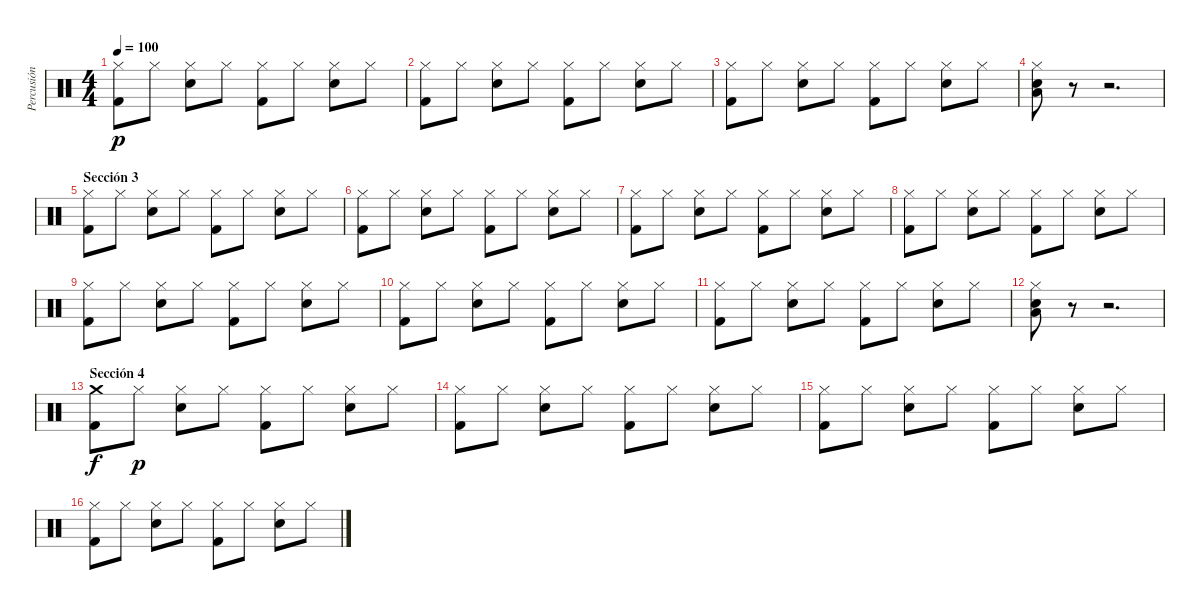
\track ("Percusión" "Percusión") {instrument percussion}
\staff {score}
\articulation defaults
\ts (4 4)
\tempo 100
\clef neutral
\ks c
("Hi-Hat (closed)" "Kick (hit) 2").8{dy p} "Hi-Hat (closed)".8 ("Hi-Hat (closed)" "Snare (hit) 2").8 "Hi-Hat (closed)".8 ("Hi-Hat (closed)" "Kick (hit) 2").8 "Hi-Hat (closed)".8 ("Hi-Hat (closed)" "Snare (hit) 2").8 "Hi-Hat (closed)".8 |
("Hi-Hat (closed)" "Kick (hit) 2").8 "Hi-Hat (closed)".8 ("Hi-Hat (closed)" "Snare (hit) 2").8 "Hi-Hat (closed)".8 ("Hi-Hat (closed)" "Kick (hit) 2").8 "Hi-Hat (closed)".8 ("Hi-Hat (closed)" "Snare (hit) 2").8 "Hi-Hat (closed)".8 |
("Hi-Hat (closed)" "Kick (hit) 2").8 "Hi-Hat (closed)".8 ("Hi-Hat (closed)" "Snare (hit) 2").8 "Hi-Hat (closed)".8 ("Hi-Hat (closed)" "Kick (hit) 2").8 "Hi-Hat (closed)".8 ("Hi-Hat (closed)" "Snare (hit) 2").8 "Hi-Hat (closed)".8 |
("Hi-Hat (closed)" "Snare (hit) 2" "Low Tom (hit)").8 r.8 r.2{d} |
\section ("" "Sección 3")
("Hi-Hat (closed)" "Kick (hit) 2").8 "Hi-Hat (closed)".8 ("Hi-Hat (closed)" "Snare (hit) 2").8 "Hi-Hat (closed)".8 ("Hi-Hat (closed)" "Kick (hit) 2").8 "Hi-Hat (closed)".8 ("Hi-Hat (closed)" "Snare (hit) 2").8 "Hi-Hat (closed)".8 |
("Hi-Hat (closed)" "Kick (hit) 2").8 "Hi-Hat (closed)".8 ("Hi-Hat (closed)" "Snare (hit) 2").8 "Hi-Hat (closed)".8 ("Hi-Hat (closed)" "Kick (hit) 2").8 "Hi-Hat (closed)".8 ("Hi-Hat (closed)" "Snare (hit) 2").8 "Hi-Hat (closed)".8 |
("Hi-Hat (closed)" "Kick (hit) 2").8 "Hi-Hat (closed)".8 ("Hi-Hat (closed)" "Snare (hit) 2").8 "Hi-Hat (closed)".8 ("Hi-Hat (closed)" "Kick (hit) 2").8 "Hi-Hat (closed)".8 ("Hi-Hat (closed)" "Snare (hit) 2").8 "Hi-Hat (closed)".8 |
("Hi-Hat (closed)" "Kick (hit) 2").8 "Hi-Hat (closed)".8 ("Hi-Hat (closed)" "Snare (hit) 2").8 "Hi-Hat (closed)".8 ("Hi-Hat (closed)" "Kick (hit) 2").8 "Hi-Hat (closed)".8 ("Hi-Hat (closed)" "Snare (hit) 2").8 "Hi-Hat (closed)".8 |
("Hi-Hat (closed)" "Kick (hit) 2").8 "Hi-Hat (closed)".8 ("Hi-Hat (closed)" "Snare (hit) 2").8 "Hi-Hat (closed)".8 ("Hi-Hat (closed)" "Kick (hit) 2").8 "Hi-Hat (closed)".8 ("Hi-Hat (closed)" "Snare (hit) 2").8 "Hi-Hat (closed)".8 |
("Hi-Hat (closed)" "Kick (hit) 2").8 "Hi-Hat (closed)".8 ("Hi-Hat (closed)" "Snare (hit) 2").8 "Hi-Hat (closed)".8 ("Hi-Hat (closed)" "Kick (hit) 2").8 "Hi-Hat (closed)".8 ("Hi-Hat (closed)" "Snare (hit) 2").8 "Hi-Hat (closed)".8 |
("Hi-Hat (closed)" "Kick (hit) 2").8 "Hi-Hat (closed)".8 ("Hi-Hat (closed)" "Snare (hit) 2").8 "Hi-Hat (closed)".8 ("Hi-Hat (closed)" "Kick (hit) 2").8 "Hi-Hat (closed)".8 ("Hi-Hat (closed)" "Snare (hit) 2").8 "Hi-Hat (closed)".8 |
("Hi-Hat (closed)" "Snare (hit) 2" "Low Tom (hit)").8 r.8 r.2{d} |
\section ("" "Sección 4")
("Crash medium (hit)" "Kick (hit) 2").8{dy f} "Hi-Hat (closed)".8{dy p} ("Hi-Hat (closed)" "Snare (hit) 2").8 "Hi-Hat (closed)".8 ("Hi-Hat (closed)" "Kick (hit) 2").8 "Hi-Hat (closed)".8 ("Hi-Hat (closed)" "Snare (hit) 2").8 "Hi-Hat (closed)".8 |
("Hi-Hat (closed)" "Kick (hit) 2").8 "Hi-Hat (closed)".8 ("Hi-Hat (closed)" "Snare (hit) 2").8 "Hi-Hat (closed)".8 ("Hi-Hat (closed)" "Kick (hit) 2").8 "Hi-Hat (closed)".8 ("Hi-Hat (closed)" "Snare (hit) 2").8 "Hi-Hat (closed)".8 |
("Hi-Hat (closed)" "Kick (hit) 2").8 "Hi-Hat (closed)".8 ("Hi-Hat (closed)" "Snare (hit) 2").8 "Hi-Hat (closed)".8 ("Hi-Hat (closed)" "Kick (hit) 2").8 "Hi-Hat (closed)".8 ("Hi-Hat (closed)" "Snare (hit) 2").8 "Hi-Hat (closed)".8 |
("Hi-Hat (closed)" "Kick (hit) 2").8 "Hi-Hat (closed)".8 ("Hi-Hat (closed)" "Snare (hit) 2").8 "Hi-Hat (closed)".8 ("Hi-Hat (closed)" "Kick (hit) 2").8 "Hi-Hat (closed)".8 ("Hi-Hat (closed)" "Snare (hit) 2").8 "Hi-Hat (closed)".8
